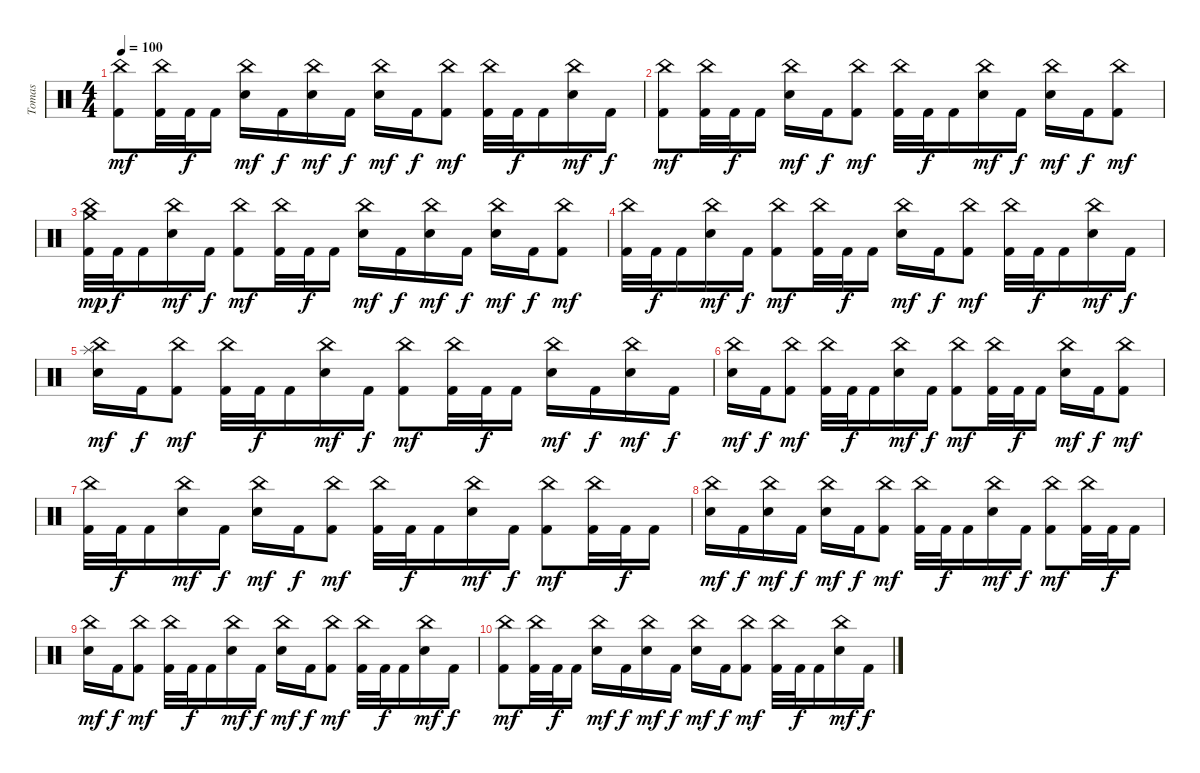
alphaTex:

\track ("Tomas" "Tomas") {instrument percussion}
\staff {score}
\articulation defaults
\ts (4 4)
\tempo 100
\clef neutral
\ks c
("China (hit)" "Kick (hit) 2").8{dy mf} ("China (hit)" "Kick (hit) 2").32 "Kick (hit) 2".32{dy f} "Kick (hit) 2".16 ("China (hit)" "Electric Snare (hit)").16{dy mf} "Kick (hit) 2".16{dy f} ("China (hit)" "Electric Snare (hit)").16{dy mf} "Kick (hit) 2".16{dy f} ("China (hit)" "Electric Snare (hit)").16{dy mf} "Kick (hit) 2".16{dy f} ("China (hit)" "Kick (hit) 2").8{dy mf} ("China (hit)" "Kick (hit) 2").32 "Kick (hit) 2".32{dy f} "Kick (hit) 2".16 ("China (hit)" "Electric Snare (hit)").16{dy mf} "Kick (hit) 2".16{dy f} |
("China (hit)" "Kick (hit) 2").8{dy mf} ("China (hit)" "Kick (hit) 2").32 "Kick (hit) 2".32{dy f} "Kick (hit) 2".16 ("China (hit)" "Electric Snare (hit)").16{dy mf} "Kick (hit) 2".16{dy f} ("China (hit)" "Kick (hit) 2").8{dy mf} ("China (hit)" "Kick (hit) 2").32 "Kick (hit) 2".32{dy f} "Kick (hit) 2".16 ("China (hit)" "Electric Snare (hit)").16{dy mf} "Kick (hit) 2".16{dy f} ("China (hit)" "Electric Snare (hit)").16{dy mf} "Kick (hit) 2".16{dy f} ("China (hit)" "Kick (hit) 2").8{dy mf} |
("China (hit)" "Crash medium (hit)" "Kick (hit) 2").32{dy mp volume 7} "Kick (hit) 2".32{dy f} "Kick (hit) 2".16 ("China (hit)" "Electric Snare (hit)").16{dy mf} "Kick (hit) 2".16{dy f} ("China (hit)" "Kick (hit) 2").8{dy mf} ("China (hit)" "Kick (hit) 2").32 "Kick (hit) 2".32{dy f} "Kick (hit) 2".16 ("China (hit)" "Electric Snare (hit)").16{dy mf} "Kick (hit) 2".16{dy f} ("China (hit)" "Electric Snare (hit)").16{dy mf} "Kick (hit) 2".16{dy f} ("China (hit)" "Electric Snare (hit)").16{dy mf} "Kick (hit) 2".16{dy f} ("China (hit)" "Kick (hit) 2").8{dy mf} |
("China (hit)" "Kick (hit) 2").32 "Kick (hit) 2".32{dy f} "Kick (hit) 2".16 ("China (hit)" "Electric Snare (hit)").16{dy mf} "Kick (hit) 2".16{dy f} ("China (hit)" "Kick (hit) 2").8{dy mf} ("China (hit)" "Kick (hit) 2").32 "Kick (hit) 2".32{dy f} "Kick (hit) 2".16 ("China (hit)" "Electric Snare (hit)").16{dy mf} "Kick (hit) 2".16{dy f} ("China (hit)" "Kick (hit) 2").8{dy mf} ("China (hit)" "Kick (hit) 2").32 "Kick (hit) 2".32{dy f} "Kick (hit) 2".16 ("China (hit)" "Electric Snare (hit)").16{dy mf} "Kick (hit) 2".16{dy f} |
("China (hit)" "Splash (hit)" "Electric Snare (hit)").16{dy mf} "Kick (hit) 2".16{dy f} ("China (hit)" "Kick (hit) 2").8{dy mf} ("China (hit)" "Kick (hit) 2").32 "Kick (hit) 2".32{dy f} "Kick (hit) 2".16 ("China (hit)" "Electric Snare (hit)").16{dy mf} "Kick (hit) 2".16{dy f} ("China (hit)" "Kick (hit) 2").8{dy mf} ("China (hit)" "Kick (hit) 2").32 "Kick (hit) 2".32{dy f} "Kick (hit) 2".16 ("China (hit)" "Electric Snare (hit)").16{dy mf} "Kick (hit) 2".16{dy f} ("China (hit)" "Electric Snare (hit)").16{dy mf} "Kick (hit) 2".16{dy f} |
("China (hit)" "Electric Snare (hit)").16{dy mf} "Kick (hit) 2".16{dy f} ("China (hit)" "Kick (hit) 2").8{dy mf} ("China (hit)" "Kick (hit) 2").32 "Kick (hit) 2".32{dy f} "Kick (hit) 2".16 ("China (hit)" "Electric Snare (hit)").16{dy mf} "Kick (hit) 2".16{dy f} ("China (hit)" "Kick (hit) 2").8{dy mf} ("China (hit)" "Kick (hit) 2").32 "Kick (hit) 2".32{dy f} "Kick (hit) 2".16 ("China (hit)" "Electric Snare (hit)").16{dy mf} "Kick (hit) 2".16{dy f} ("China (hit)" "Kick (hit) 2").8{dy mf} |
("China (hit)" "Kick (hit) 2").32 "Kick (hit) 2".32{dy f} "Kick (hit) 2".16 ("China (hit)" "Electric Snare (hit)").16{dy mf} "Kick (hit) 2".16{dy f} ("China (hit)" "Electric Snare (hit)").16{dy mf} "Kick (hit) 2".16{dy f} ("China (hit)" "Kick (hit) 2").8{dy mf} ("China (hit)" "Kick (hit) 2").32 "Kick (hit) 2".32{dy f} "Kick (hit) 2".16 ("China (hit)" "Electric Snare (hit)").16{dy mf} "Kick (hit) 2".16{dy f} ("China (hit)" "Kick (hit) 2").8{dy mf} ("China (hit)" "Kick (hit) 2").32 "Kick (hit) 2".32{dy f} "Kick (hit) 2".16 |
("China (hit)" "Electric Snare (hit)").16{dy mf} "Kick (hit) 2".16{dy f} ("China (hit)" "Electric Snare (hit)").16{dy mf} "Kick (hit) 2".16{dy f} ("China (hit)" "Electric Snare (hit)").16{dy mf} "Kick (hit) 2".16{dy f} ("China (hit)" "Kick (hit) 2").8{dy mf} ("China (hit)" "Kick (hit) 2").32 "Kick (hit) 2".32{dy f} "Kick (hit) 2".16 ("China (hit)" "Electric Snare (hit)").16{dy mf} "Kick (hit) 2".16{dy f} ("China (hit)" "Kick (hit) 2").8{dy mf} ("China (hit)" "Kick (hit) 2").32 "Kick (hit) 2".32{dy f} "Kick (hit) 2".16 |
("China (hit)" "Electric Snare (hit)").16{dy mf} "Kick (hit) 2".16{dy f} ("China (hit)" "Kick (hit) 2").8{dy mf} ("China (hit)" "Kick (hit) 2").32 "Kick (hit) 2".32{dy f} "Kick (hit) 2".16 ("China (hit)" "Electric Snare (hit)").16{dy mf} "Kick (hit) 2".16{dy f} ("China (hit)" "Electric Snare (hit)").16{dy mf} "Kick (hit) 2".16{dy f} ("China (hit)" "Kick (hit) 2").8{dy mf} ("China (hit)" "Kick (hit) 2").32 "Kick (hit) 2".32{dy f} "Kick (hit) 2".16 ("China (hit)" "Electric Snare (hit)").16{dy mf} "Kick (hit) 2".16{dy f} |
("China (hit)" "Kick (hit) 2").8{dy mf} ("China (hit)" "Kick (hit) 2").32 "Kick (hit) 2".32{dy f} "Kick (hit) 2".16 ("China (hit)" "Electric Snare (hit)").16{dy mf} "Kick (hit) 2".16{dy f} ("China (hit)" "Electric Snare (hit)").16{dy mf} "Kick (hit) 2".16{dy f} ("China (hit)" "Electric Snare (hit)").16{dy mf} "Kick (hit) 2".16{dy f} ("China (hit)" "Kick (hit) 2").8{dy mf} ("China (hit)" "Kick (hit) 2").32 "Kick (hit) 2".32{dy f} "Kick (hit) 2".16 ("China (hit)" "Electric Snare (hit)").16{dy mf} "Kick (hit) 2".16{dy f}
